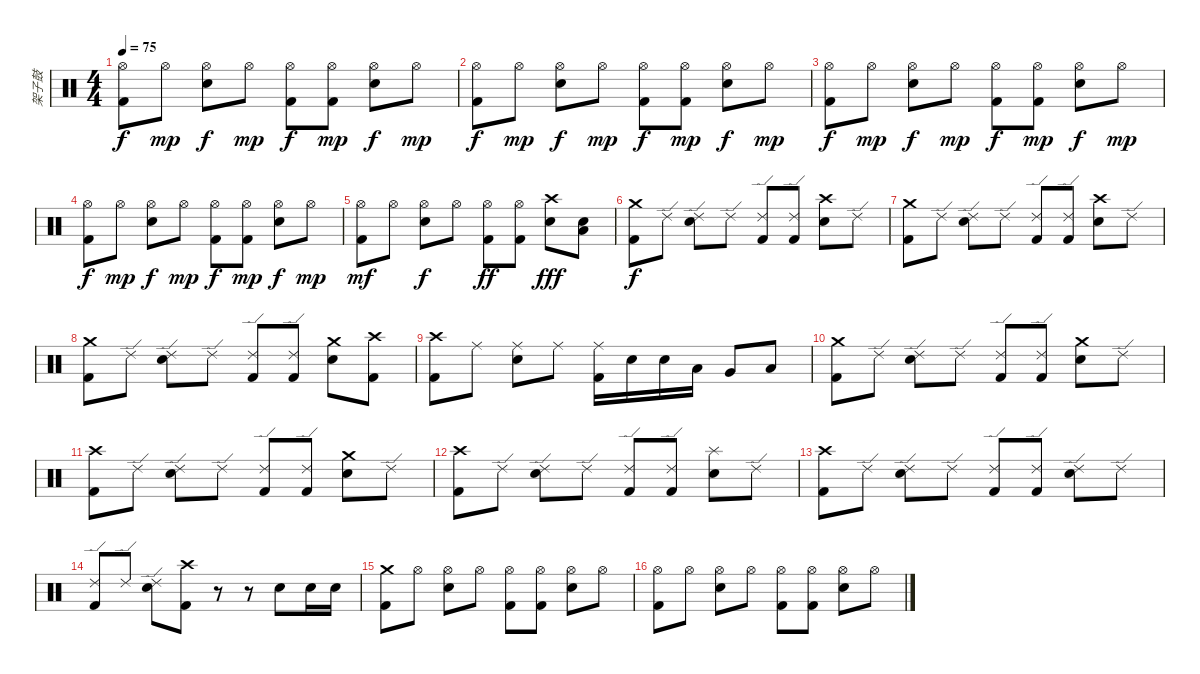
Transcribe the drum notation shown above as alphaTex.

\track ("架子鼓" "架子鼓") {instrument percussion}
\staff {score}
\articulation defaults
\ts (4 4)
\tempo 75
\clef neutral
\ks c
("Hi-Hat (open)" "Kick (hit) 2").8{dy f} "Hi-Hat (open)".8{dy mp} ("Hi-Hat (open)" "Electric Snare (hit)").8{dy f} "Hi-Hat (open)".8{dy mp} ("Hi-Hat (open)" "Kick (hit) 2").8{dy f} ("Hi-Hat (open)" "Kick (hit) 2").8{dy mp} ("Hi-Hat (open)" "Electric Snare (hit)").8{dy f} "Hi-Hat (open)".8{dy mp} |
("Hi-Hat (open)" "Kick (hit) 2").8{dy f} "Hi-Hat (open)".8{dy mp} ("Hi-Hat (open)" "Electric Snare (hit)").8{dy f} "Hi-Hat (open)".8{dy mp} ("Hi-Hat (open)" "Kick (hit) 2").8{dy f} ("Hi-Hat (open)" "Kick (hit) 2").8{dy mp} ("Hi-Hat (open)" "Electric Snare (hit)").8{dy f} "Hi-Hat (open)".8{dy mp} |
("Hi-Hat (open)" "Kick (hit) 2").8{dy f} "Hi-Hat (open)".8{dy mp} ("Hi-Hat (open)" "Electric Snare (hit)").8{dy f} "Hi-Hat (open)".8{dy mp} ("Hi-Hat (open)" "Kick (hit) 2").8{dy f} ("Hi-Hat (open)" "Kick (hit) 2").8{dy mp} ("Hi-Hat (open)" "Electric Snare (hit)").8{dy f} "Hi-Hat (open)".8{dy mp} |
("Hi-Hat (open)" "Kick (hit) 2").8{dy f} "Hi-Hat (open)".8{dy mp} ("Hi-Hat (open)" "Electric Snare (hit)").8{dy f} "Hi-Hat (open)".8{dy mp} ("Hi-Hat (open)" "Kick (hit) 2").8{dy f} ("Hi-Hat (open)" "Kick (hit) 2").8{dy mp} ("Hi-Hat (open)" "Electric Snare (hit)").8{dy f} "Hi-Hat (open)".8{dy mp} |
("Hi-Hat (open)" "Kick (hit) 2").8{dy mf} "Hi-Hat (open)".8 ("Hi-Hat (open)" "Electric Snare (hit)").8{dy f} "Hi-Hat (open)".8 ("Hi-Hat (open)" "Kick (hit) 2").8{dy ff} ("Hi-Hat (open)" "Kick (hit) 2").8 ("Crash high (hit)" "Electric Snare (hit)").8{dy fff} ("Low Tom (hit)" "Electric Snare (hit)").8 |
("Crash medium (hit)" "Kick (hit) 2").8{dy f} "Ride (edge) 2".8 ("Ride (edge) 2" "Electric Snare (hit)").8 "Ride (edge) 2".8 ("Ride (edge) 2" "Kick (hit) 2").8 ("Ride (edge) 2" "Kick (hit) 2").8 ("Crash high (hit)" "Electric Snare (hit)").8 "Ride (edge) 2".8 |
("Crash medium (hit)" "Kick (hit) 2").8 "Ride (edge) 2".8 ("Ride (edge) 2" "Electric Snare (hit)").8 "Ride (edge) 2".8 ("Ride (edge) 2" "Kick (hit) 2").8 ("Ride (edge) 2" "Kick (hit) 2").8 ("Crash high (hit)" "Electric Snare (hit)").8 "Ride (edge) 2".8 |
("Crash medium (hit)" "Kick (hit) 2").8 "Ride (edge) 2".8 ("Ride (edge) 2" "Electric Snare (hit)").8 "Ride (edge) 2".8 ("Ride (edge) 2" "Kick (hit) 2").8 ("Ride (edge) 2" "Kick (hit) 2").8 ("Crash medium (hit)" "Electric Snare (hit)").8 ("Crash high (hit)" "Kick (hit) 2").8 |
("Crash high (hit)" "Kick (hit) 2").8 "Ride (middle)".8 ("Ride (middle)" "Electric Snare (hit)").8 "Ride (middle)".8 ("Ride (middle)" "Kick (hit) 2").16 "Electric Snare (hit)".16 "Electric Snare (hit)".16 "Low Tom (hit)".16 "Very Low Tom (hit)".8 "Low Floor Tom (hit)".8 |
("Crash medium (hit)" "Kick (hit) 2").8 "Ride (edge) 2".8 ("Ride (edge) 2" "Electric Snare (hit)").8 "Ride (edge) 2".8 ("Ride (edge) 2" "Kick (hit) 2").8 ("Ride (edge) 2" "Kick (hit) 2").8 ("Crash medium (hit)" "Electric Snare (hit)").8 "Ride (edge) 2".8 |
("Crash high (hit)" "Kick (hit) 2").8 "Ride (edge) 2".8 ("Ride (edge) 2" "Electric Snare (hit)").8 "Ride (edge) 2".8 ("Ride (edge) 2" "Kick (hit) 2").8 ("Ride (edge) 2" "Kick (hit) 2").8 ("Crash medium (hit)" "Electric Snare (hit)").8 "Ride (edge) 2".8 |
("Crash high (hit)" "Kick (hit) 2").8 "Ride (edge) 2".8 ("Ride (edge) 2" "Electric Snare (hit)").8 "Ride (edge) 2".8 ("Ride (edge) 2" "Kick (hit) 2").8 ("Ride (edge) 2" "Kick (hit) 2").8 ("Splash (hit)" "Electric Snare (hit)").8 "Ride (edge) 2".8 |
("Crash high (hit)" "Kick (hit) 2").8 "Ride (edge) 2".8 ("Ride (edge) 2" "Electric Snare (hit)").8 "Ride (edge) 2".8 ("Ride (edge) 2" "Kick (hit) 2").8 ("Ride (edge) 2" "Kick (hit) 2").8 ("Ride (edge) 2" "Electric Snare (hit)").8 "Ride (edge) 2".8 |
("Ride (edge) 2" "Kick (hit) 2").8 "Ride (edge) 2".8 ("Ride (edge) 2" "Electric Snare (hit)").8 ("Crash high (hit)" "Kick (hit) 2").8 r.8 r.8 "Snare (hit) 2".8 "Snare (hit) 2".16 "Snare (hit) 2".16 |
("Crash medium (hit)" "Kick (hit) 2").8 "Hi-Hat (open)".8 ("Hi-Hat (open)" "Electric Snare (hit)").8 "Hi-Hat (open)".8 ("Hi-Hat (open)" "Kick (hit) 2").8 ("Hi-Hat (open)" "Kick (hit) 2").8 ("Hi-Hat (open)" "Electric Snare (hit)").8 "Hi-Hat (open)".8 |
("Hi-Hat (open)" "Kick (hit) 2").8 "Hi-Hat (open)".8 ("Hi-Hat (open)" "Electric Snare (hit)").8 "Hi-Hat (open)".8 ("Hi-Hat (open)" "Kick (hit) 2").8 ("Hi-Hat (open)" "Kick (hit) 2").8 ("Hi-Hat (open)" "Electric Snare (hit)").8 "Hi-Hat (open)".8
